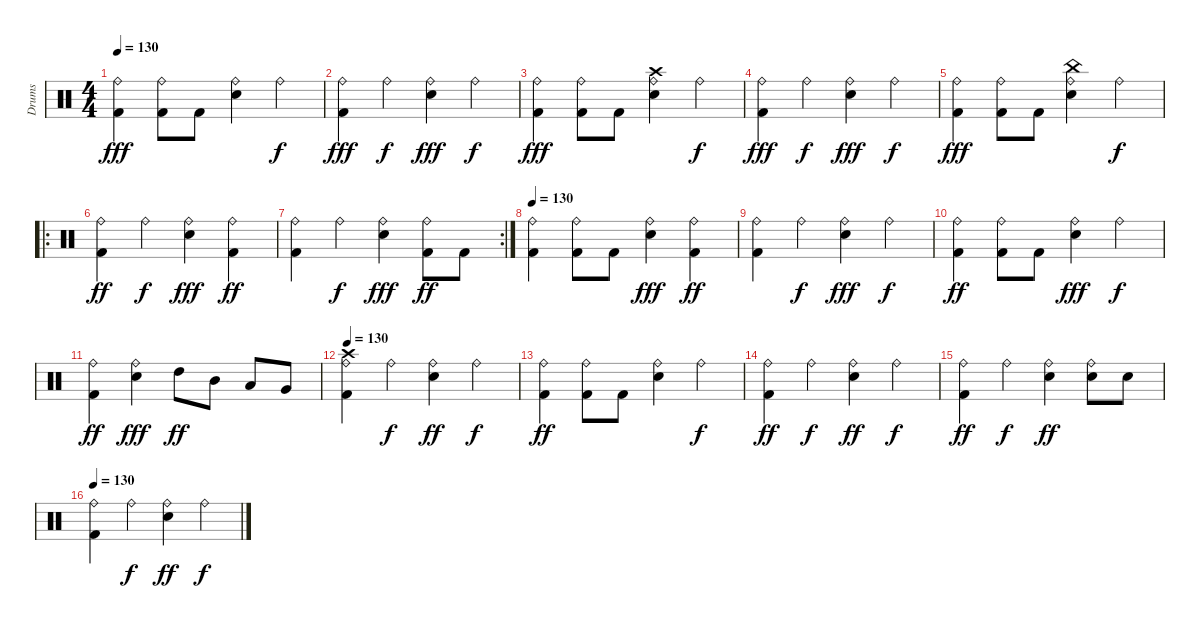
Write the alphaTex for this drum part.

\track ("Drums" "Drums") {instrument percussion}
\staff {score}
\articulation defaults
\ts (4 4)
\tempo 130
\clef neutral
\ks c
("Ride (bell)" "Kick (hit) 2").4{dy fff} ("Ride (bell)" "Kick (hit) 2").8 "Kick (hit) 2".8 ("Ride (bell)" "Snare (hit) 2").4 "Ride (bell)".4{dy f} |
("Ride (bell)" "Kick (hit) 2").4{dy fff} "Ride (bell)".4{dy f} ("Ride (bell)" "Snare (hit) 2").4{dy fff} "Ride (bell)".4{dy f} |
("Ride (bell)" "Kick (hit) 2").4{dy fff} ("Ride (bell)" "Kick (hit) 2").8 "Kick (hit) 2".8 ("Ride (bell)" "Crash high (hit)" "Snare (hit) 2").4 "Ride (bell)".4{dy f} |
("Ride (bell)" "Kick (hit) 2").4{dy fff} "Ride (bell)".4{dy f} ("Ride (bell)" "Snare (hit) 2").4{dy fff} "Ride (bell)".4{dy f} |
("Ride (bell)" "Kick (hit) 2").4{dy fff} ("Ride (bell)" "Kick (hit) 2").8 "Kick (hit) 2".8 ("Ride (bell)" "China (hit)" "Snare (hit) 2").4 "Ride (bell)".4{dy f} |
\ro
("Ride (bell)" "Kick (hit) 2").4{dy ff} "Ride (bell)".4{dy f} ("Ride (bell)" "Snare (hit) 2").4{dy fff} ("Ride (bell)" "Kick (hit) 2").4{dy ff} |
\rc 2
("Ride (bell)" "Kick (hit) 2").4 "Ride (bell)".4{dy f} ("Ride (bell)" "Snare (hit) 2").4{dy fff} ("Ride (bell)" "Kick (hit) 2").8{dy ff} "Kick (hit) 2".8 |
\tempo 130
("Ride (bell)" "Kick (hit) 2").4 ("Ride (bell)" "Kick (hit) 2").8 "Kick (hit) 2".8 ("Ride (bell)" "Snare (hit) 2").4{dy fff} ("Ride (bell)" "Kick (hit) 2").4{dy ff} |
("Ride (bell)" "Kick (hit) 2").4 "Ride (bell)".4{dy f} ("Ride (bell)" "Snare (hit) 2").4{dy fff} "Ride (bell)".4{dy f} |
("Ride (bell)" "Kick (hit) 2").4{dy ff} ("Ride (bell)" "Kick (hit) 2").8 "Kick (hit) 2".8 ("Ride (bell)" "Snare (hit) 2").4{dy fff} "Ride (bell)".4{dy f} |
("Ride (bell)" "Kick (hit) 2").4{dy ff} ("Ride (bell)" "Snare (hit) 2").4{dy fff} "High Tom (hit)".8{dy ff} "Mid Tom (hit)".8 "Low Tom (hit)".8 "Very Low Tom (hit)".8 |
\tempo 130
("Ride (bell)" "Crash high (hit)" "Kick (hit) 2").4 "Ride (bell)".4{dy f} ("Ride (bell)" "Snare (hit) 2").4{dy ff} "Ride (bell)".4{dy f} |
("Ride (bell)" "Kick (hit) 2").4{dy ff} ("Ride (bell)" "Kick (hit) 2").8 "Kick (hit) 2".8 ("Ride (bell)" "Snare (hit) 2").4 "Ride (bell)".4{dy f} |
("Ride (bell)" "Kick (hit) 2").4{dy ff} "Ride (bell)".4{dy f} ("Ride (bell)" "Snare (hit) 2").4{dy ff} "Ride (bell)".4{dy f} |
("Ride (bell)" "Kick (hit) 2").4{dy ff} "Ride (bell)".4{dy f} ("Ride (bell)" "Snare (hit) 2").4{dy ff} ("Ride (bell)" "Snare (hit) 2").8 "Snare (hit) 2".8 |
\tempo 130
("Ride (bell)" "Kick (hit) 2").4 "Ride (bell)".4{dy f} ("Ride (bell)" "Snare (hit) 2").4{dy ff} "Ride (bell)".4{dy f}
